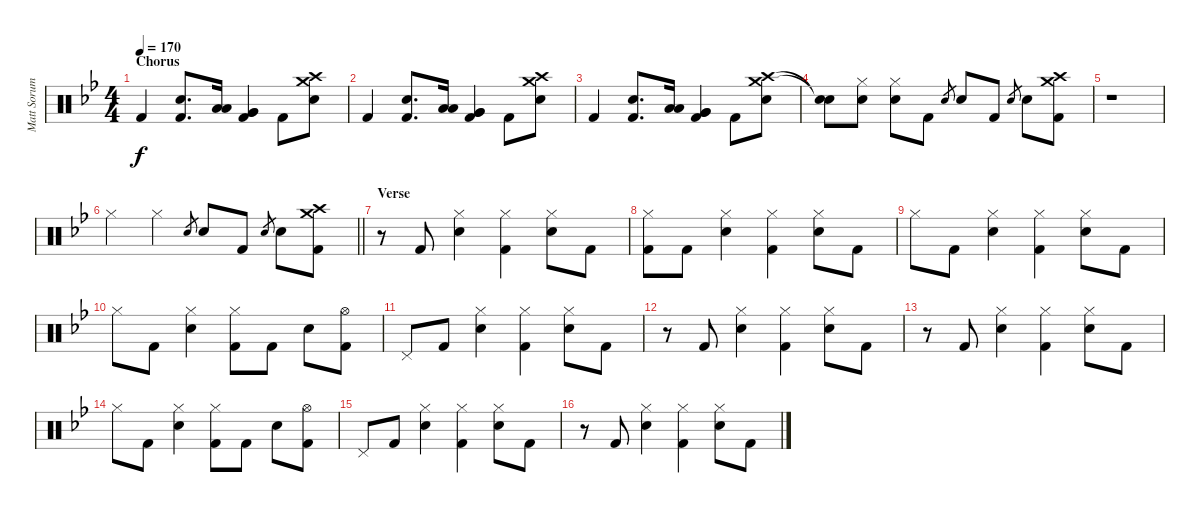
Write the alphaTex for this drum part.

\track ("Matt Sorum - Drums" "Matt Sorum") {instrument percussion}
\staff {score}
\articulation defaults
\ts (4 4)
\section ("" "Chorus")
\tempo 170
\clef neutral
\ks bb "Kick (hit) 2".4{dy f}
("Snare (hit) 2" "Kick (hit) 2").8{d} ("Low Tom (hit)" "Low Tom (hit)").16 ("Very Low Tom (hit)" "Very Low Tom (hit)" "Kick (hit) 2").4 "Kick (hit) 2".8 ("Crash medium (hit)" "Crash high (hit)" "Snare (hit) 2").8 |
"Kick (hit) 2".4 ("Snare (hit) 2" "Kick (hit) 2").8{d} ("Low Tom (hit)" "Low Tom (hit)").16 ("Very Low Tom (hit)" "Very Low Tom (hit)" "Kick (hit) 2").4 "Kick (hit) 2".8 ("Crash medium (hit)" "Crash high (hit)" "Snare (hit) 2").8 |
"Kick (hit) 2".4 ("Snare (hit) 2" "Kick (hit) 2").8{d} ("Low Tom (hit)" "Low Tom (hit)").16 ("Very Low Tom (hit)" "Very Low Tom (hit)" "Kick (hit) 2").4 "Kick (hit) 2".8 ("Crash medium (hit)" "Crash high (hit)" "Snare (hit) 2").8 |
("Snare (hit)"{t} "Snare (hit)"{t}).8 ("Hi-Hat (closed)" "Snare (hit) 2").8 ("Hi-Hat (closed)" "Snare (hit) 2").8 "Kick (hit) 2".8 "Snare (hit) 2".8{gr} "Snare (hit) 2".8 "Kick (hit) 2".8 "Snare (hit) 2".8{gr} "Snare (hit) 2".8 ("Crash medium (hit)" "Crash high (hit)" "Kick (hit) 2").8 |
r.1 |
\barLineRight lightlight "Hi-Hat (closed)".4 "Hi-Hat (closed)".4 "Snare (hit) 2".8{gr} "Snare (hit) 2".8 "Kick (hit) 2".8 "Snare (hit) 2".8{gr} "Snare (hit) 2".8
("Crash medium (hit)" "Crash high (hit)" "Kick (hit) 2").8 |
\section ("" "Verse")
r.8 "Kick (hit) 2".8 ("Hi-Hat (closed)" "Snare (hit) 2").4 ("Hi-Hat (closed)" "Kick (hit) 2").4 ("Hi-Hat (closed)" "Snare (hit) 2").8 "Kick (hit) 2".8 |
("Hi-Hat (closed)" "Kick (hit) 2").8 "Kick (hit) 2".8 ("Hi-Hat (closed)" "Snare (hit) 2").4 ("Hi-Hat (closed)" "Kick (hit) 2").4 ("Hi-Hat (closed)" "Snare (hit) 2").8 "Kick (hit) 2".8 |
"Hi-Hat (closed)".8 "Kick (hit) 2".8 ("Hi-Hat (closed)" "Snare (hit) 2").4 ("Hi-Hat (closed)" "Kick (hit) 2").4 ("Hi-Hat (closed)" "Snare (hit) 2").8 "Kick (hit) 2".8 |
"Hi-Hat (closed)".8 "Kick (hit) 2".8 ("Hi-Hat (closed)" "Snare (hit) 2").4 ("Hi-Hat (closed)" "Kick (hit) 2").8 "Kick (hit) 2".8 "Snare (hit) 2".8 ("Hi-Hat (open)" "Kick (hit) 2").8 |
"Pedal Hi-Hat (hit)".8 "Kick (hit) 2".8 ("Hi-Hat (closed)" "Snare (hit) 2").4 ("Hi-Hat (closed)" "Kick (hit) 2").4 ("Hi-Hat (closed)" "Snare (hit) 2").8 "Kick (hit) 2".8 |
r.8 "Kick (hit) 2".8 ("Hi-Hat (closed)" "Snare (hit) 2").4 ("Hi-Hat (closed)" "Kick (hit) 2").4 ("Hi-Hat (closed)" "Snare (hit) 2").8 "Kick (hit) 2".8 |
r.8 "Kick (hit) 2".8 ("Hi-Hat (closed)" "Snare (hit) 2").4 ("Hi-Hat (closed)" "Kick (hit) 2").4 ("Hi-Hat (closed)" "Snare (hit) 2").8 "Kick (hit) 2".8 |
"Hi-Hat (closed)".8 "Kick (hit) 2".8 ("Hi-Hat (closed)" "Snare (hit) 2").4 ("Hi-Hat (closed)" "Kick (hit) 2").8 "Kick (hit) 2".8 "Snare (hit) 2".8 ("Hi-Hat (open)" "Kick (hit) 2").8 |
"Pedal Hi-Hat (hit)".8 "Kick (hit) 2".8 ("Hi-Hat (closed)" "Snare (hit) 2").4 ("Hi-Hat (closed)" "Kick (hit) 2").4 ("Hi-Hat (closed)" "Snare (hit) 2").8 "Kick (hit) 2".8 |
r.8 "Kick (hit) 2".8 ("Hi-Hat (closed)" "Snare (hit) 2").4 ("Hi-Hat (closed)" "Kick (hit) 2").4 ("Hi-Hat (closed)" "Snare (hit) 2").8 "Kick (hit) 2".8
